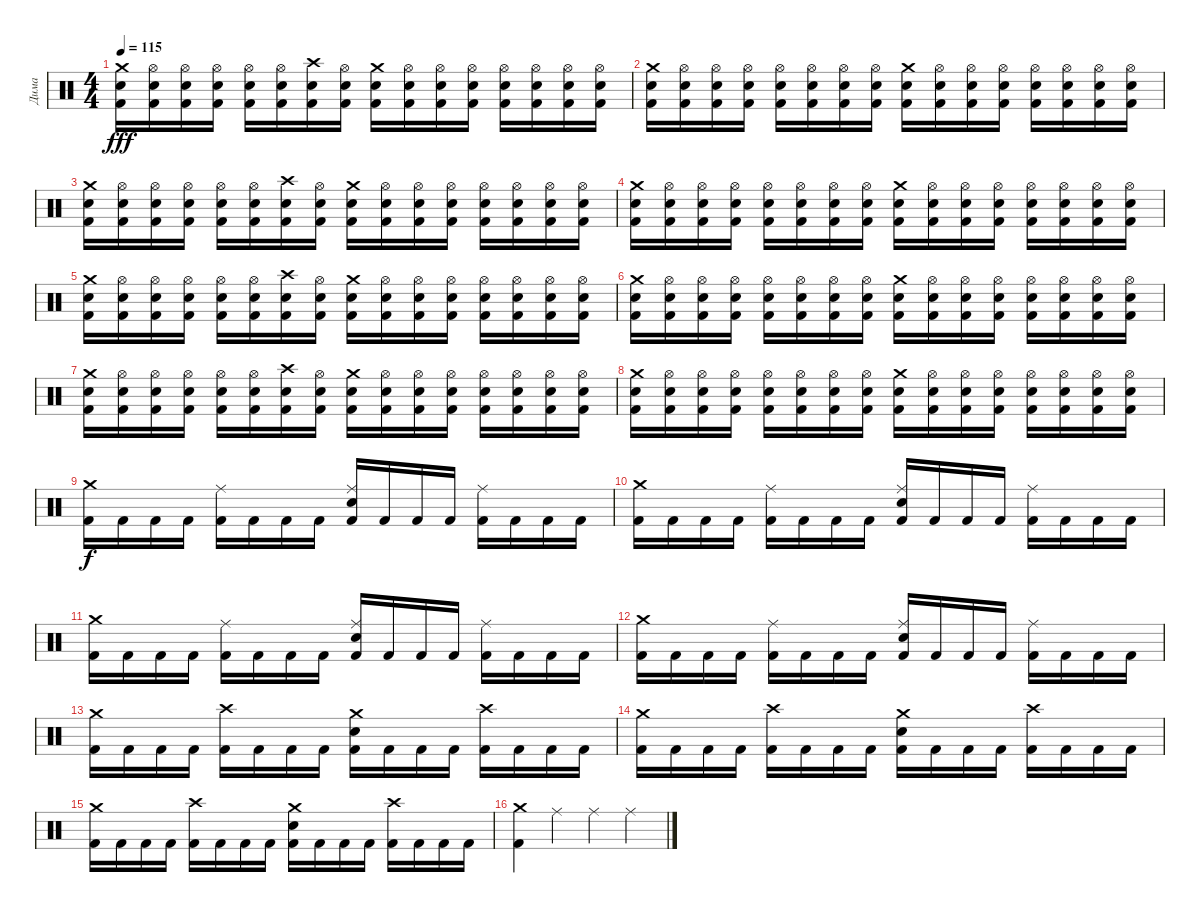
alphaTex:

\track ("Дима " "Дима ") {instrument percussion}
\staff {score}
\articulation defaults
\ts (4 4)
\tempo 115
\clef neutral
\ks c
("Crash medium (hit)" "Snare (hit) 2" "Kick (hit) 2").16{dy fff} ("Hi-Hat (open)" "Snare (hit) 2" "Kick (hit) 2").16 ("Hi-Hat (open)" "Snare (hit) 2" "Kick (hit) 2").16 ("Hi-Hat (open)" "Snare (hit) 2" "Kick (hit) 2").16 ("Hi-Hat (open)" "Snare (hit) 2" "Kick (hit) 2").16 ("Hi-Hat (open)" "Snare (hit) 2" "Kick (hit) 2").16 ("Crash high (hit)" "Snare (hit) 2" "Kick (hit) 2").16 ("Hi-Hat (open)" "Snare (hit) 2" "Kick (hit) 2").16 ("Crash medium (hit)" "Snare (hit) 2" "Kick (hit) 2").16 ("Hi-Hat (open)" "Snare (hit) 2" "Kick (hit) 2").16 ("Hi-Hat (open)" "Snare (hit) 2" "Kick (hit) 2").16 ("Hi-Hat (open)" "Snare (hit) 2" "Kick (hit) 2").16 ("Hi-Hat (open)" "Snare (hit) 2" "Kick (hit) 2").16 ("Hi-Hat (open)" "Snare (hit) 2" "Kick (hit) 2").16 ("Hi-Hat (open)" "Snare (hit) 2" "Kick (hit) 2").16 ("Hi-Hat (open)" "Snare (hit) 2" "Kick (hit) 2").16 |
("Crash medium (hit)" "Snare (hit) 2" "Kick (hit) 2").16 ("Hi-Hat (open)" "Snare (hit) 2" "Kick (hit) 2").16 ("Hi-Hat (open)" "Snare (hit) 2" "Kick (hit) 2").16 ("Hi-Hat (open)" "Snare (hit) 2" "Kick (hit) 2").16 ("Hi-Hat (open)" "Snare (hit) 2" "Kick (hit) 2").16 ("Hi-Hat (open)" "Snare (hit) 2" "Kick (hit) 2").16 ("Hi-Hat (open)" "Snare (hit) 2" "Kick (hit) 2").16 ("Hi-Hat (open)" "Snare (hit) 2" "Kick (hit) 2").16 ("Crash medium (hit)" "Snare (hit) 2" "Kick (hit) 2").16 ("Hi-Hat (open)" "Snare (hit) 2" "Kick (hit) 2").16 ("Hi-Hat (open)" "Snare (hit) 2" "Kick (hit) 2").16 ("Hi-Hat (open)" "Snare (hit) 2" "Kick (hit) 2").16 ("Hi-Hat (open)" "Snare (hit) 2" "Kick (hit) 2").16 ("Hi-Hat (open)" "Snare (hit) 2" "Kick (hit) 2").16 ("Hi-Hat (open)" "Snare (hit) 2" "Kick (hit) 2").16 ("Hi-Hat (open)" "Snare (hit) 2" "Kick (hit) 2").16 |
("Crash medium (hit)" "Snare (hit) 2" "Kick (hit) 2").16 ("Hi-Hat (open)" "Snare (hit) 2" "Kick (hit) 2").16 ("Hi-Hat (open)" "Snare (hit) 2" "Kick (hit) 2").16 ("Hi-Hat (open)" "Snare (hit) 2" "Kick (hit) 2").16 ("Hi-Hat (open)" "Snare (hit) 2" "Kick (hit) 2").16 ("Hi-Hat (open)" "Snare (hit) 2" "Kick (hit) 2").16 ("Crash high (hit)" "Snare (hit) 2" "Kick (hit) 2").16 ("Hi-Hat (open)" "Snare (hit) 2" "Kick (hit) 2").16 ("Crash medium (hit)" "Snare (hit) 2" "Kick (hit) 2").16 ("Hi-Hat (open)" "Snare (hit) 2" "Kick (hit) 2").16 ("Hi-Hat (open)" "Snare (hit) 2" "Kick (hit) 2").16 ("Hi-Hat (open)" "Snare (hit) 2" "Kick (hit) 2").16 ("Hi-Hat (open)" "Snare (hit) 2" "Kick (hit) 2").16 ("Hi-Hat (open)" "Snare (hit) 2" "Kick (hit) 2").16 ("Hi-Hat (open)" "Snare (hit) 2" "Kick (hit) 2").16 ("Hi-Hat (open)" "Snare (hit) 2" "Kick (hit) 2").16 |
("Crash medium (hit)" "Snare (hit) 2" "Kick (hit) 2").16 ("Hi-Hat (open)" "Snare (hit) 2" "Kick (hit) 2").16 ("Hi-Hat (open)" "Snare (hit) 2" "Kick (hit) 2").16 ("Hi-Hat (open)" "Snare (hit) 2" "Kick (hit) 2").16 ("Hi-Hat (open)" "Snare (hit) 2" "Kick (hit) 2").16 ("Hi-Hat (open)" "Snare (hit) 2" "Kick (hit) 2").16 ("Hi-Hat (open)" "Snare (hit) 2" "Kick (hit) 2").16 ("Hi-Hat (open)" "Snare (hit) 2" "Kick (hit) 2").16 ("Crash medium (hit)" "Snare (hit) 2" "Kick (hit) 2").16 ("Hi-Hat (open)" "Snare (hit) 2" "Kick (hit) 2").16 ("Hi-Hat (open)" "Snare (hit) 2" "Kick (hit) 2").16 ("Hi-Hat (open)" "Snare (hit) 2" "Kick (hit) 2").16 ("Hi-Hat (open)" "Snare (hit) 2" "Kick (hit) 2").16 ("Hi-Hat (open)" "Snare (hit) 2" "Kick (hit) 2").16 ("Hi-Hat (open)" "Snare (hit) 2" "Kick (hit) 2").16 ("Hi-Hat (open)" "Snare (hit) 2" "Kick (hit) 2").16 |
("Crash medium (hit)" "Snare (hit) 2" "Kick (hit) 2").16 ("Hi-Hat (open)" "Snare (hit) 2" "Kick (hit) 2").16 ("Hi-Hat (open)" "Snare (hit) 2" "Kick (hit) 2").16 ("Hi-Hat (open)" "Snare (hit) 2" "Kick (hit) 2").16 ("Hi-Hat (open)" "Snare (hit) 2" "Kick (hit) 2").16 ("Hi-Hat (open)" "Snare (hit) 2" "Kick (hit) 2").16 ("Crash high (hit)" "Snare (hit) 2" "Kick (hit) 2").16 ("Hi-Hat (open)" "Snare (hit) 2" "Kick (hit) 2").16 ("Crash medium (hit)" "Snare (hit) 2" "Kick (hit) 2").16 ("Hi-Hat (open)" "Snare (hit) 2" "Kick (hit) 2").16 ("Hi-Hat (open)" "Snare (hit) 2" "Kick (hit) 2").16 ("Hi-Hat (open)" "Snare (hit) 2" "Kick (hit) 2").16 ("Hi-Hat (open)" "Snare (hit) 2" "Kick (hit) 2").16 ("Hi-Hat (open)" "Snare (hit) 2" "Kick (hit) 2").16 ("Hi-Hat (open)" "Snare (hit) 2" "Kick (hit) 2").16 ("Hi-Hat (open)" "Snare (hit) 2" "Kick (hit) 2").16 |
("Crash medium (hit)" "Snare (hit) 2" "Kick (hit) 2").16 ("Hi-Hat (open)" "Snare (hit) 2" "Kick (hit) 2").16 ("Hi-Hat (open)" "Snare (hit) 2" "Kick (hit) 2").16 ("Hi-Hat (open)" "Snare (hit) 2" "Kick (hit) 2").16 ("Hi-Hat (open)" "Snare (hit) 2" "Kick (hit) 2").16 ("Hi-Hat (open)" "Snare (hit) 2" "Kick (hit) 2").16 ("Hi-Hat (open)" "Snare (hit) 2" "Kick (hit) 2").16 ("Hi-Hat (open)" "Snare (hit) 2" "Kick (hit) 2").16 ("Crash medium (hit)" "Snare (hit) 2" "Kick (hit) 2").16 ("Hi-Hat (open)" "Snare (hit) 2" "Kick (hit) 2").16 ("Hi-Hat (open)" "Snare (hit) 2" "Kick (hit) 2").16 ("Hi-Hat (open)" "Snare (hit) 2" "Kick (hit) 2").16 ("Hi-Hat (open)" "Snare (hit) 2" "Kick (hit) 2").16 ("Hi-Hat (open)" "Snare (hit) 2" "Kick (hit) 2").16 ("Hi-Hat (open)" "Snare (hit) 2" "Kick (hit) 2").16 ("Hi-Hat (open)" "Snare (hit) 2" "Kick (hit) 2").16 |
("Crash medium (hit)" "Snare (hit) 2" "Kick (hit) 2").16 ("Hi-Hat (open)" "Snare (hit) 2" "Kick (hit) 2").16 ("Hi-Hat (open)" "Snare (hit) 2" "Kick (hit) 2").16 ("Hi-Hat (open)" "Snare (hit) 2" "Kick (hit) 2").16 ("Hi-Hat (open)" "Snare (hit) 2" "Kick (hit) 2").16 ("Hi-Hat (open)" "Snare (hit) 2" "Kick (hit) 2").16 ("Crash high (hit)" "Snare (hit) 2" "Kick (hit) 2").16 ("Hi-Hat (open)" "Snare (hit) 2" "Kick (hit) 2").16 ("Crash medium (hit)" "Snare (hit) 2" "Kick (hit) 2").16 ("Hi-Hat (open)" "Snare (hit) 2" "Kick (hit) 2").16 ("Hi-Hat (open)" "Snare (hit) 2" "Kick (hit) 2").16 ("Hi-Hat (open)" "Snare (hit) 2" "Kick (hit) 2").16 ("Hi-Hat (open)" "Snare (hit) 2" "Kick (hit) 2").16 ("Hi-Hat (open)" "Snare (hit) 2" "Kick (hit) 2").16 ("Hi-Hat (open)" "Snare (hit) 2" "Kick (hit) 2").16 ("Hi-Hat (open)" "Snare (hit) 2" "Kick (hit) 2").16 |
("Crash medium (hit)" "Snare (hit) 2" "Kick (hit) 2").16 ("Hi-Hat (open)" "Snare (hit) 2" "Kick (hit) 2").16 ("Hi-Hat (open)" "Snare (hit) 2" "Kick (hit) 2").16 ("Hi-Hat (open)" "Snare (hit) 2" "Kick (hit) 2").16 ("Hi-Hat (open)" "Snare (hit) 2" "Kick (hit) 2").16 ("Hi-Hat (open)" "Snare (hit) 2" "Kick (hit) 2").16 ("Hi-Hat (open)" "Snare (hit) 2" "Kick (hit) 2").16 ("Hi-Hat (open)" "Snare (hit) 2" "Kick (hit) 2").16 ("Crash medium (hit)" "Snare (hit) 2" "Kick (hit) 2").16 ("Hi-Hat (open)" "Snare (hit) 2" "Kick (hit) 2").16 ("Hi-Hat (open)" "Snare (hit) 2" "Kick (hit) 2").16 ("Hi-Hat (open)" "Snare (hit) 2" "Kick (hit) 2").16 ("Hi-Hat (open)" "Snare (hit) 2" "Kick (hit) 2").16 ("Hi-Hat (open)" "Snare (hit) 2" "Kick (hit) 2").16 ("Hi-Hat (open)" "Snare (hit) 2" "Kick (hit) 2").16 ("Hi-Hat (open)" "Snare (hit) 2" "Kick (hit) 2").16 |
("Crash medium (hit)" "Kick (hit) 2").16{dy f} "Kick (hit) 2".16 "Kick (hit) 2".16 "Kick (hit) 2".16 ("Ride (middle)" "Kick (hit) 2").16 "Kick (hit) 2".16 "Kick (hit) 2".16 "Kick (hit) 2".16 ("Ride (middle)" "Electric Snare (hit)" "Kick (hit) 2").16 "Kick (hit) 2".16 "Kick (hit) 2".16 "Kick (hit) 2".16 ("Ride (middle)" "Kick (hit) 2").16 "Kick (hit) 2".16 "Kick (hit) 2".16 "Kick (hit) 2".16 |
("Crash medium (hit)" "Kick (hit) 2").16 "Kick (hit) 2".16 "Kick (hit) 2".16 "Kick (hit) 2".16 ("Ride (middle)" "Kick (hit) 2").16 "Kick (hit) 2".16 "Kick (hit) 2".16 "Kick (hit) 2".16 ("Ride (middle)" "Electric Snare (hit)" "Kick (hit) 2").16 "Kick (hit) 2".16 "Kick (hit) 2".16 "Kick (hit) 2".16 ("Ride (middle)" "Kick (hit) 2").16 "Kick (hit) 2".16 "Kick (hit) 2".16 "Kick (hit) 2".16 |
("Crash medium (hit)" "Kick (hit) 2").16 "Kick (hit) 2".16 "Kick (hit) 2".16 "Kick (hit) 2".16 ("Ride (middle)" "Kick (hit) 2").16 "Kick (hit) 2".16 "Kick (hit) 2".16 "Kick (hit) 2".16 ("Ride (middle)" "Electric Snare (hit)" "Kick (hit) 2").16 "Kick (hit) 2".16 "Kick (hit) 2".16 "Kick (hit) 2".16 ("Ride (middle)" "Kick (hit) 2").16 "Kick (hit) 2".16 "Kick (hit) 2".16 "Kick (hit) 2".16 |
("Crash medium (hit)" "Kick (hit) 2").16 "Kick (hit) 2".16 "Kick (hit) 2".16 "Kick (hit) 2".16 ("Ride (middle)" "Kick (hit) 2").16 "Kick (hit) 2".16 "Kick (hit) 2".16 "Kick (hit) 2".16 ("Ride (middle)" "Electric Snare (hit)" "Kick (hit) 2").16 "Kick (hit) 2".16 "Kick (hit) 2".16 "Kick (hit) 2".16 ("Ride (middle)" "Kick (hit) 2").16 "Kick (hit) 2".16 "Kick (hit) 2".16 "Kick (hit) 2".16 |
("Crash medium (hit)" "Kick (hit) 2").16 "Kick (hit) 2".16 "Kick (hit) 2".16 "Kick (hit) 2".16 ("Crash high (hit)" "Kick (hit) 2").16 "Kick (hit) 2".16 "Kick (hit) 2".16 "Kick (hit) 2".16 ("Crash medium (hit)" "Electric Snare (hit)" "Kick (hit) 2").16 "Kick (hit) 2".16 "Kick (hit) 2".16 "Kick (hit) 2".16 ("Crash high (hit)" "Kick (hit) 2").16 "Kick (hit) 2".16 "Kick (hit) 2".16 "Kick (hit) 2".16 |
("Crash medium (hit)" "Kick (hit) 2").16 "Kick (hit) 2".16 "Kick (hit) 2".16 "Kick (hit) 2".16 ("Crash high (hit)" "Kick (hit) 2").16 "Kick (hit) 2".16 "Kick (hit) 2".16 "Kick (hit) 2".16 ("Crash medium (hit)" "Electric Snare (hit)" "Kick (hit) 2").16 "Kick (hit) 2".16 "Kick (hit) 2".16 "Kick (hit) 2".16 ("Crash high (hit)" "Kick (hit) 2").16 "Kick (hit) 2".16 "Kick (hit) 2".16 "Kick (hit) 2".16 |
("Crash medium (hit)" "Kick (hit) 2").16 "Kick (hit) 2".16 "Kick (hit) 2".16 "Kick (hit) 2".16 ("Crash high (hit)" "Kick (hit) 2").16 "Kick (hit) 2".16 "Kick (hit) 2".16 "Kick (hit) 2".16 ("Crash medium (hit)" "Electric Snare (hit)" "Kick (hit) 2").16 "Kick (hit) 2".16 "Kick (hit) 2".16 "Kick (hit) 2".16 ("Crash high (hit)" "Kick (hit) 2").16 "Kick (hit) 2".16 "Kick (hit) 2".16 "Kick (hit) 2".16 |
("Crash medium (hit)" "Kick (hit) 2").4 "Ride (middle)".4 "Ride (middle)".4 "Ride (middle)".4
